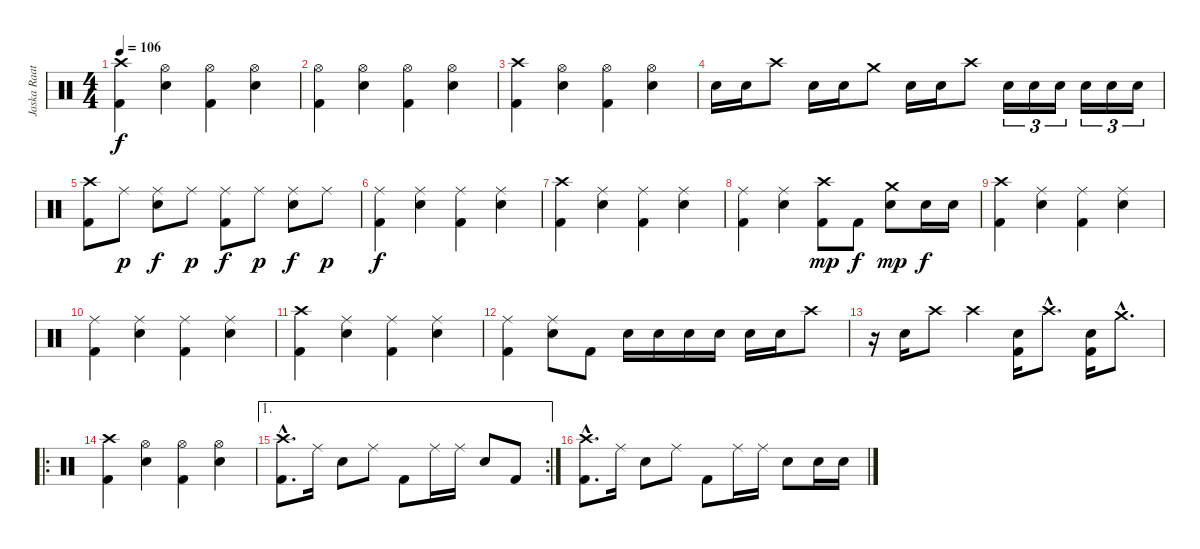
\track ("Jaska Raatikainen" "Jaska Raat") {instrument percussion}
\staff {score}
\articulation defaults
\ts (4 4)
\tempo 106
\clef neutral
\ks c
("Kick (hit) 2" "Crash high (hit)").4{dy f} ("Hi-Hat (open)" "Snare (hit) 2").4 ("Kick (hit) 2" "Hi-Hat (open)").4 ("Hi-Hat (open)" "Snare (hit) 2").4 |
("Kick (hit) 2" "Hi-Hat (open)").4 ("Hi-Hat (open)" "Snare (hit) 2").4 ("Kick (hit) 2" "Hi-Hat (open)").4 ("Hi-Hat (open)" "Snare (hit) 2").4 |
("Kick (hit) 2" "Crash high (hit)").4 ("Hi-Hat (open)" "Snare (hit) 2").4 ("Kick (hit) 2" "Hi-Hat (open)").4 ("Hi-Hat (open)" "Snare (hit) 2").4 |
"Snare (hit) 2".16 "Snare (hit) 2".16 "Crash high (hit)".8 "Snare (hit) 2".16 "Snare (hit) 2".16 "Crash medium (hit)".8 "Snare (hit) 2".16 "Snare (hit) 2".16 "Crash high (hit)".8 "Snare (hit) 2".16{tu (3 2)} "Snare (hit) 2".16{tu (3 2)} "Snare (hit) 2".16{tu (3 2)} "Snare (hit) 2".16{tu (3 2)} "Snare (hit) 2".16{tu (3 2)} "Snare (hit) 2".16{tu (3 2)} |
("Kick (hit) 2" "Crash high (hit)").8 "Ride (middle)".8{dy p} ("Ride (middle)" "Snare (hit) 2").8{dy f} "Ride (middle)".8{dy p} ("Kick (hit) 2" "Ride (middle)").8{dy f} "Ride (middle)".8{dy p} ("Ride (middle)" "Snare (hit) 2").8{dy f} "Ride (middle)".8{dy p} |
("Kick (hit) 2" "Ride (middle)").4{dy f} ("Ride (middle)" "Snare (hit) 2").4 ("Kick (hit) 2" "Ride (middle)").4 ("Ride (middle)" "Snare (hit) 2").4 |
("Kick (hit) 2" "Crash high (hit)").4 ("Ride (middle)" "Snare (hit) 2").4 ("Kick (hit) 2" "Ride (middle)").4 ("Ride (middle)" "Snare (hit) 2").4 |
("Kick (hit) 2" "Ride (middle)").4 ("Ride (middle)" "Snare (hit) 2").4 ("Kick (hit) 2" "Crash high (hit)").8{dy mp} "Kick (hit) 2".8{dy f} ("Crash medium (hit)" "Snare (hit) 2").8{dy mp} "Snare (hit) 2".16{dy f} "Snare (hit) 2".16 |
("Kick (hit) 2" "Crash high (hit)").4 ("Ride (middle)" "Snare (hit) 2").4 ("Kick (hit) 2" "Ride (middle)").4 ("Ride (middle)" "Snare (hit) 2").4 |
("Kick (hit) 2" "Ride (middle)").4 ("Ride (middle)" "Snare (hit) 2").4 ("Kick (hit) 2" "Ride (middle)").4 ("Ride (middle)" "Snare (hit) 2").4 |
("Kick (hit) 2" "Crash high (hit)").4 ("Ride (middle)" "Snare (hit) 2").4 ("Kick (hit) 2" "Ride (middle)").4 ("Ride (middle)" "Snare (hit) 2").4 |
("Kick (hit) 2" "Ride (middle)").4 ("Ride (middle)" "Snare (hit) 2").8 "Kick (hit) 2".8 "Snare (hit) 2".16 "Snare (hit) 2".16 "Snare (hit) 2".16 "Snare (hit) 2".16 "Snare (hit) 2".16 "Snare (hit) 2".16 "Crash high (hit)".8 |
r.16 "Snare (hit) 2".16 "Crash high (hit)".8 "Crash high (hit)".4 ("Kick (hit) 2" "Snare (hit) 2").16 "Crash high (hit)"{hac}.8{d} ("Kick (hit) 2" "Snare (hit) 2").16 "Crash medium (hit)"{hac}.8{d} |
\ro
("Kick (hit) 2" "Crash high (hit)").4 ("Hi-Hat (open)" "Snare (hit) 2").4 ("Kick (hit) 2" "Hi-Hat (open)").4 ("Hi-Hat (open)" "Snare (hit) 2").4 |
\ae 1
\rc 2
("Kick (hit) 2"{hac} "Crash high (hit)"{hac}).8{d} "Ride (middle)".16 "Snare (hit) 2".8 "Ride (middle)".8 "Kick (hit) 2".8 "Ride (middle)".16 "Ride (middle)".16 "Snare (hit) 2".8 "Kick (hit) 2".8 |
("Kick (hit) 2"{hac} "Crash high (hit)"{hac}).8{d} "Ride (middle)".16 "Snare (hit) 2".8 "Ride (middle)".8 "Kick (hit) 2".8 "Ride (middle)".16 "Ride (middle)".16 "Snare (hit) 2".8 "Snare (hit) 2".16 "Snare (hit) 2".16
